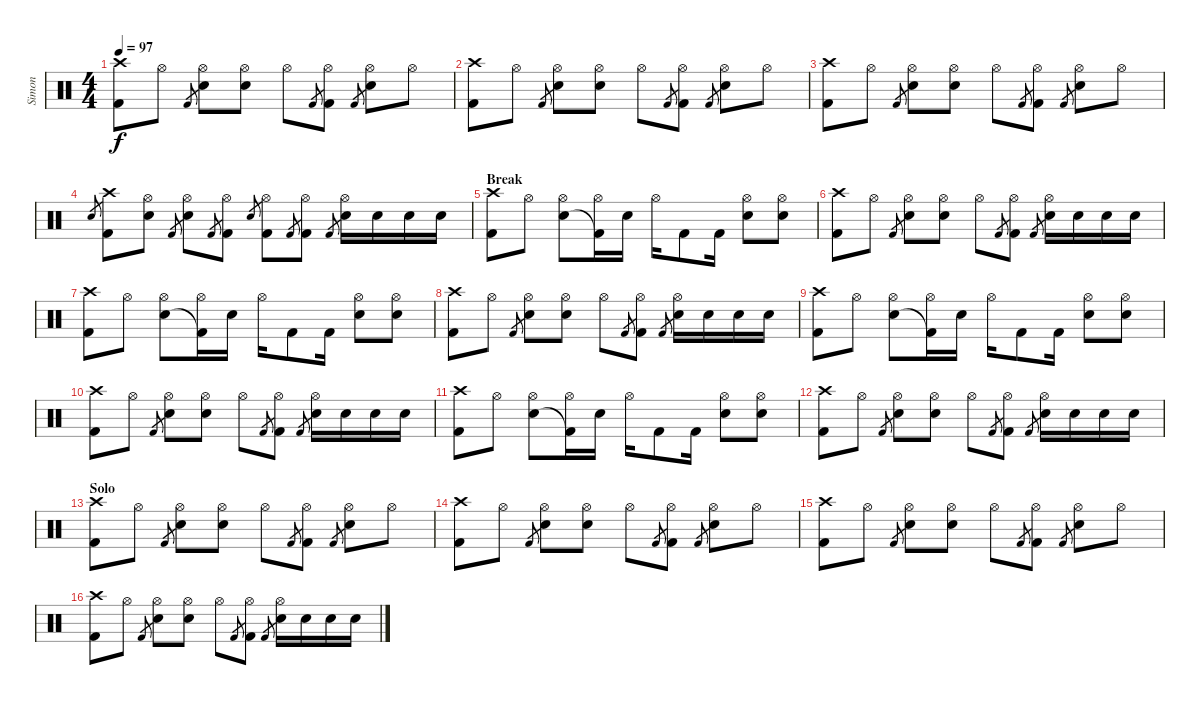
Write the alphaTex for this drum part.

\track ("Simon" "Simon") {instrument percussion}
\staff {score}
\articulation defaults
\ts (4 4)
\tempo 97
\clef neutral
\ks c
("Crash high (hit)" "Kick (hit) 2").8{dy f} "Hi-Hat (open)".8 "Kick (hit) 2".8{gr} ("Hi-Hat (open)" "Electric Snare (hit)").8 ("Hi-Hat (open)" "Electric Snare (hit)").8 "Hi-Hat (open)".8 "Kick (hit) 2".8{gr} ("Hi-Hat (open)" "Kick (hit) 2").8 "Kick (hit) 2".8{gr} ("Hi-Hat (open)" "Electric Snare (hit)").8 "Hi-Hat (open)".8 |
("Crash high (hit)" "Kick (hit) 2").8 "Hi-Hat (open)".8 "Kick (hit) 2".8{gr} ("Hi-Hat (open)" "Electric Snare (hit)").8 ("Hi-Hat (open)" "Electric Snare (hit)").8 "Hi-Hat (open)".8 "Kick (hit) 2".8{gr} ("Hi-Hat (open)" "Kick (hit) 2").8 "Kick (hit) 2".8{gr} ("Hi-Hat (open)" "Electric Snare (hit)").8 "Hi-Hat (open)".8 |
("Crash high (hit)" "Kick (hit) 2").8 "Hi-Hat (open)".8 "Kick (hit) 2".8{gr} ("Hi-Hat (open)" "Electric Snare (hit)").8 ("Hi-Hat (open)" "Electric Snare (hit)").8 "Hi-Hat (open)".8 "Kick (hit) 2".8{gr} ("Hi-Hat (open)" "Kick (hit) 2").8 "Kick (hit) 2".8{gr} ("Hi-Hat (open)" "Electric Snare (hit)").8 "Hi-Hat (open)".8 |
"Electric Snare (hit)".8{gr} ("Crash high (hit)" "Kick (hit) 2").8 ("Hi-Hat (open)" "Electric Snare (hit)").8 "Kick (hit) 2".8{gr} ("Hi-Hat (open)" "Electric Snare (hit)").8 "Kick (hit) 2".8{gr} ("Hi-Hat (open)" "Kick (hit) 2").8 "Electric Snare (hit)".8{gr} ("Hi-Hat (open)" "Kick (hit) 2").8 "Kick (hit) 2".8{gr} ("Hi-Hat (open)" "Kick (hit) 2").8 "Kick (hit) 2".8{gr} ("Hi-Hat (open)" "Electric Snare (hit)").16 "Electric Snare (hit)".16 "Electric Snare (hit)".16 "Electric Snare (hit)".16 |
\section ("" "Break")
("Crash high (hit)" "Kick (hit) 2").8 "Hi-Hat (open)".8 ("Hi-Hat (open)" "Electric Snare (hit)").8 ("Hi-Hat (open)" "Kick (hit) 2"{t}).16 "Electric Snare (hit)".16 "Hi-Hat (open)".16 "Kick (hit) 2".8 "Kick (hit) 2".16 ("Hi-Hat (open)" "Electric Snare (hit)").8 ("Hi-Hat (open)" "Electric Snare (hit)").8 |
("Crash high (hit)" "Kick (hit) 2").8 "Hi-Hat (open)".8 "Kick (hit) 2".8{gr} ("Hi-Hat (open)" "Electric Snare (hit)").8 ("Hi-Hat (open)" "Electric Snare (hit)").8 "Hi-Hat (open)".8 "Kick (hit) 2".8{gr} ("Hi-Hat (open)" "Kick (hit) 2").8 "Kick (hit) 2".8{gr} ("Hi-Hat (open)" "Electric Snare (hit)").16 "Electric Snare (hit)".16 "Electric Snare (hit)".16 "Electric Snare (hit)".16 |
("Crash high (hit)" "Kick (hit) 2").8 "Hi-Hat (open)".8 ("Hi-Hat (open)" "Electric Snare (hit)").8 ("Hi-Hat (open)" "Kick (hit) 2"{t}).16 "Electric Snare (hit)".16 "Hi-Hat (open)".16 "Kick (hit) 2".8 "Kick (hit) 2".16 ("Hi-Hat (open)" "Electric Snare (hit)").8 ("Hi-Hat (open)" "Electric Snare (hit)").8 |
("Crash high (hit)" "Kick (hit) 2").8 "Hi-Hat (open)".8 "Kick (hit) 2".8{gr} ("Hi-Hat (open)" "Electric Snare (hit)").8 ("Hi-Hat (open)" "Electric Snare (hit)").8 "Hi-Hat (open)".8 "Kick (hit) 2".8{gr} ("Hi-Hat (open)" "Kick (hit) 2").8 "Kick (hit) 2".8{gr} ("Hi-Hat (open)" "Electric Snare (hit)").16 "Electric Snare (hit)".16 "Electric Snare (hit)".16 "Electric Snare (hit)".16 |
("Crash high (hit)" "Kick (hit) 2").8 "Hi-Hat (open)".8 ("Hi-Hat (open)" "Electric Snare (hit)").8 ("Hi-Hat (open)" "Kick (hit) 2"{t}).16 "Electric Snare (hit)".16 "Hi-Hat (open)".16 "Kick (hit) 2".8 "Kick (hit) 2".16 ("Hi-Hat (open)" "Electric Snare (hit)").8 ("Hi-Hat (open)" "Electric Snare (hit)").8 |
("Crash high (hit)" "Kick (hit) 2").8 "Hi-Hat (open)".8 "Kick (hit) 2".8{gr} ("Hi-Hat (open)" "Electric Snare (hit)").8 ("Hi-Hat (open)" "Electric Snare (hit)").8 "Hi-Hat (open)".8 "Kick (hit) 2".8{gr} ("Hi-Hat (open)" "Kick (hit) 2").8 "Kick (hit) 2".8{gr} ("Hi-Hat (open)" "Electric Snare (hit)").16 "Electric Snare (hit)".16 "Electric Snare (hit)".16 "Electric Snare (hit)".16 |
("Crash high (hit)" "Kick (hit) 2").8 "Hi-Hat (open)".8 ("Hi-Hat (open)" "Electric Snare (hit)").8 ("Hi-Hat (open)" "Kick (hit) 2"{t}).16 "Electric Snare (hit)".16 "Hi-Hat (open)".16 "Kick (hit) 2".8 "Kick (hit) 2".16 ("Hi-Hat (open)" "Electric Snare (hit)").8 ("Hi-Hat (open)" "Electric Snare (hit)").8 |
("Crash high (hit)" "Kick (hit) 2").8 "Hi-Hat (open)".8 "Kick (hit) 2".8{gr} ("Hi-Hat (open)" "Electric Snare (hit)").8 ("Hi-Hat (open)" "Electric Snare (hit)").8 "Hi-Hat (open)".8 "Kick (hit) 2".8{gr} ("Hi-Hat (open)" "Kick (hit) 2").8 "Kick (hit) 2".8{gr} ("Hi-Hat (open)" "Electric Snare (hit)").16 "Electric Snare (hit)".16 "Electric Snare (hit)".16 "Electric Snare (hit)".16 |
\section ("" "Solo")
("Crash high (hit)" "Kick (hit) 2").8 "Hi-Hat (open)".8 "Kick (hit) 2".8{gr} ("Hi-Hat (open)" "Electric Snare (hit)").8 ("Hi-Hat (open)" "Electric Snare (hit)").8 "Hi-Hat (open)".8 "Kick (hit) 2".8{gr} ("Hi-Hat (open)" "Kick (hit) 2").8 "Kick (hit) 2".8{gr} ("Hi-Hat (open)" "Electric Snare (hit)").8 "Hi-Hat (open)".8 |
("Crash high (hit)" "Kick (hit) 2").8 "Hi-Hat (open)".8 "Kick (hit) 2".8{gr} ("Hi-Hat (open)" "Electric Snare (hit)").8 ("Hi-Hat (open)" "Electric Snare (hit)").8 "Hi-Hat (open)".8 "Kick (hit) 2".8{gr} ("Hi-Hat (open)" "Kick (hit) 2").8 "Kick (hit) 2".8{gr} ("Hi-Hat (open)" "Electric Snare (hit)").8 "Hi-Hat (open)".8 |
("Crash high (hit)" "Kick (hit) 2").8 "Hi-Hat (open)".8 "Kick (hit) 2".8{gr} ("Hi-Hat (open)" "Electric Snare (hit)").8 ("Hi-Hat (open)" "Electric Snare (hit)").8 "Hi-Hat (open)".8 "Kick (hit) 2".8{gr} ("Hi-Hat (open)" "Kick (hit) 2").8 "Kick (hit) 2".8{gr} ("Hi-Hat (open)" "Electric Snare (hit)").8 "Hi-Hat (open)".8 |
("Crash high (hit)" "Kick (hit) 2").8 "Hi-Hat (open)".8 "Kick (hit) 2".8{gr} ("Hi-Hat (open)" "Electric Snare (hit)").8 ("Hi-Hat (open)" "Electric Snare (hit)").8 "Hi-Hat (open)".8 "Kick (hit) 2".8{gr} ("Hi-Hat (open)" "Kick (hit) 2").8 "Kick (hit) 2".8{gr} ("Hi-Hat (open)" "Electric Snare (hit)").16 "Electric Snare (hit)".16 "Electric Snare (hit)".16 "Electric Snare (hit)".16
